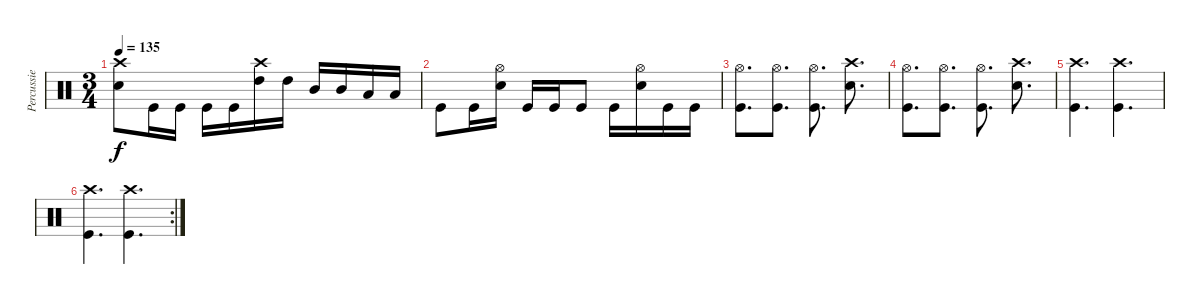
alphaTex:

\track ("Percussie" "Percussie") {instrument percussion}
\staff {score}
\articulation defaults
\ts (3 4)
\tempo 135
\clef neutral
\ks c
("Crash high (hit)" "Snare (hit) 2").8{dy f} "Kick (hit)".16 "Kick (hit)".16 "Kick (hit)".16 "Kick (hit)".16 ("Crash high (hit)" "High Tom (hit)").16 "High Tom (hit)".16 "Mid Tom (hit)".16 "Mid Tom (hit)".16 "Low Tom (hit)".16 "Low Tom (hit)".16 |
"Kick (hit)".8 "Kick (hit)".16 ("Hi-Hat (open)" "Snare (hit) 2").16 "Kick (hit)".16 "Kick (hit)".16 "Kick (hit)".8 "Kick (hit)".16 ("Hi-Hat (open)" "Snare (hit) 2").16 "Kick (hit)".16 "Kick (hit)".16 |
("Hi-Hat (open)" "Kick (hit)").8{d} ("Hi-Hat (open)" "Kick (hit)").8{d} ("Hi-Hat (open)" "Kick (hit)").8{d} ("Crash high (hit)" "Snare (hit) 2").8{d} |
("Hi-Hat (open)" "Kick (hit)").8{d} ("Hi-Hat (open)" "Kick (hit)").8{d} ("Hi-Hat (open)" "Kick (hit)").8{d} ("Crash high (hit)" "Snare (hit) 2").8{d} |
("Crash high (hit)" "Kick (hit)").4{d} ("Crash high (hit)" "Kick (hit)").4{d} |
\rc 2
("Crash high (hit)" "Kick (hit)").4{d} ("Crash high (hit)" "Kick (hit)").4{d}
